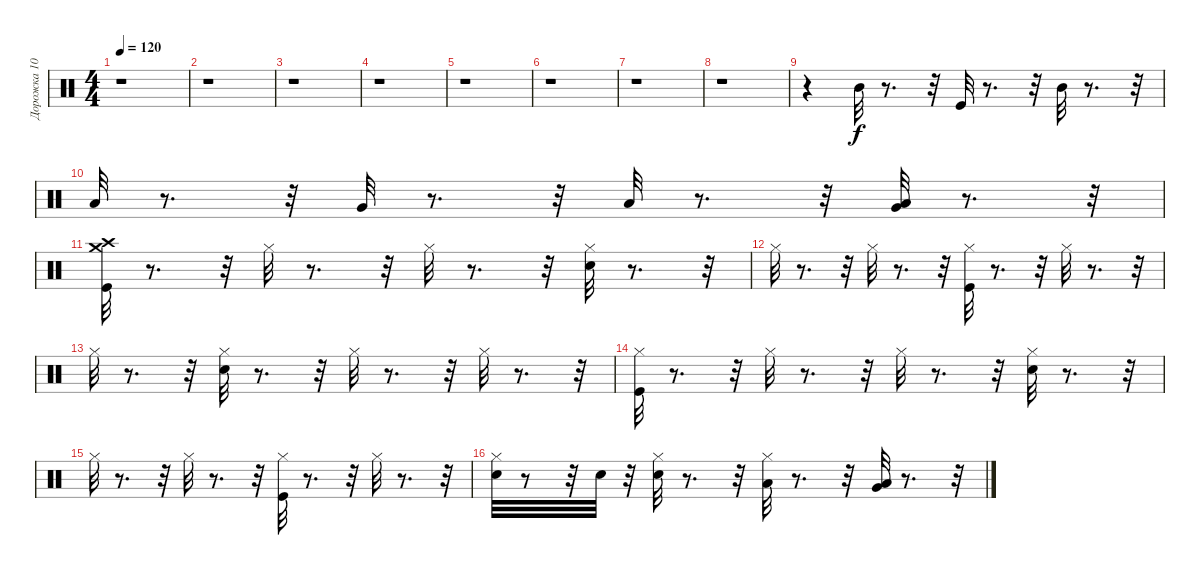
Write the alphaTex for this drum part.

\track ("Дорожка 10" "Дорожка 10") {instrument percussion}
\staff {score}
\articulation defaults
\ts (4 4)
\tempo 120
\clef neutral
\ks c
r.1{dy f} |
r.1 |
r.1 |
r.1 |
r.1 |
r.1 |
r.1 |
r.1 |
r.4 "Mid Tom (hit)".32 r.8{d} r.32 "Kick (hit)".32 r.8{d} r.32 "Mid Tom (hit)".32 r.8{d} r.32 |
"Low Tom (hit)".32 r.8{d} r.32 "Very Low Tom (hit)".32 r.8{d} r.32 "Low Tom (hit)".32 r.8{d} r.32 ("Low Floor Tom (hit)" "Very Low Tom (hit)").32 r.8{d} r.32 |
("Crash high (hit)" "Crash medium (hit)" "Kick (hit)").32 r.8{d} r.32 "Hi-Hat (closed)".32 r.8{d} r.32 "Hi-Hat (closed)".32 r.8{d} r.32 ("Hi-Hat (closed)" "Snare (hit) 2").32 r.8{d} r.32 |
"Hi-Hat (closed)".32 r.8{d} r.32 "Hi-Hat (closed)".32 r.8{d} r.32 ("Hi-Hat (closed)" "Kick (hit)").32 r.8{d} r.32 "Hi-Hat (closed)".32 r.8{d} r.32 |
"Hi-Hat (closed)".32 r.8{d} r.32 ("Hi-Hat (closed)" "Snare (hit) 2").32 r.8{d} r.32 "Hi-Hat (closed)".32 r.8{d} r.32 "Hi-Hat (closed)".32 r.8{d} r.32 |
("Hi-Hat (closed)" "Kick (hit)").32 r.8{d} r.32 "Hi-Hat (closed)".32 r.8{d} r.32 "Hi-Hat (closed)".32 r.8{d} r.32 ("Snare (hit) 2" "Hi-Hat (closed)").32 r.8{d} r.32 |
"Hi-Hat (closed)".32 r.8{d} r.32 "Hi-Hat (closed)".32 r.8{d} r.32 ("Hi-Hat (closed)" "Kick (hit)").32 r.8{d} r.32 "Hi-Hat (closed)".32 r.8{d} r.32 |
("Snare (hit) 2" "Hi-Hat (closed)").32 r.8 r.32 "Snare (hit) 2".32 r.32 ("Snare (hit) 2" "Hi-Hat (closed)").32 r.8{d} r.32 ("Low Tom (hit)" "Hi-Hat (closed)").32 r.8{d} r.32 ("Very Low Tom (hit)" "Low Floor Tom (hit)").32 r.8{d} r.32
